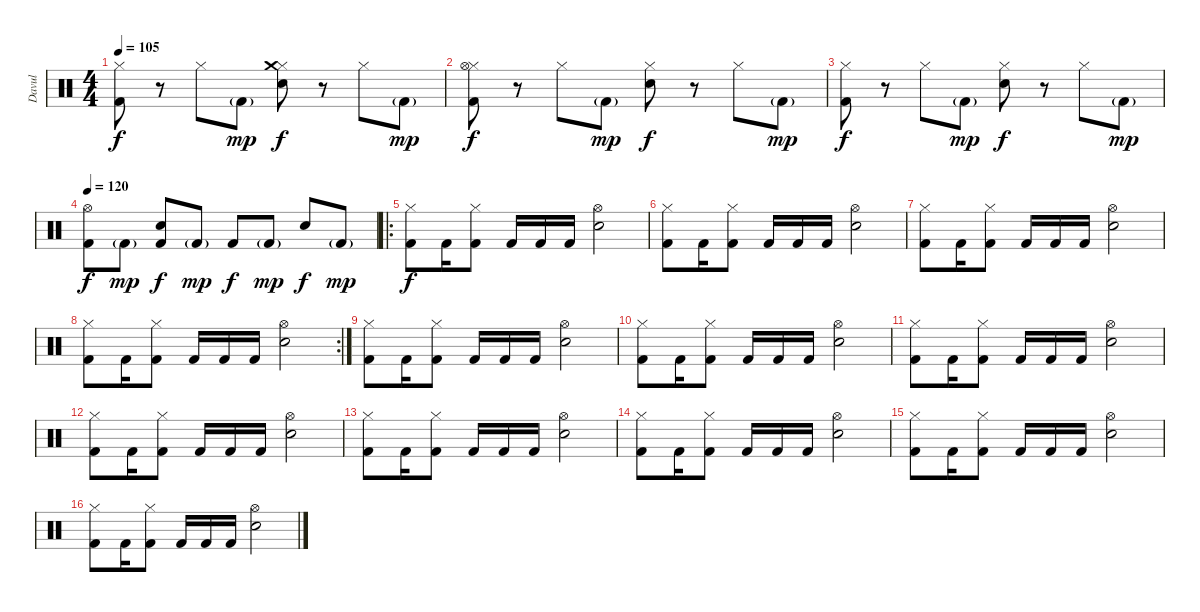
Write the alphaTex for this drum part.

\track ("Davul" "Davul") {instrument percussion}
\staff {score}
\articulation defaults
\ts (4 4)
\tempo 105
\clef neutral
\ks c
("Hi-Hat (closed)" "Kick (hit) 2").8{dy f} r.8 "Hi-Hat (closed)".8 "Kick (hit) 2"{g}.8{dy mp} ("Hi-Hat (closed)" "Crash medium (hit)" "Electric Snare (hit)").8{dy f} r.8 "Hi-Hat (closed)".8 "Kick (hit) 2"{g}.8{dy mp} |
("Hi-Hat (closed)" "Hi-Hat (open)" "Kick (hit) 2").8{dy f} r.8 "Hi-Hat (closed)".8 "Kick (hit) 2"{g}.8{dy mp} ("Hi-Hat (closed)" "Electric Snare (hit)").8{dy f} r.8 "Hi-Hat (closed)".8 "Kick (hit) 2"{g}.8{dy mp} |
("Hi-Hat (closed)" "Kick (hit) 2").8{dy f} r.8 "Hi-Hat (closed)".8 "Kick (hit) 2"{g}.8{dy mp} ("Hi-Hat (closed)" "Electric Snare (hit)").8{dy f} r.8 "Hi-Hat (closed)".8 "Kick (hit) 2"{g}.8{dy mp} |
\tempo 120
("Hi-Hat (open)" "Kick (hit) 2").8{dy f volume 16} "Kick (hit) 2"{g}.8{dy mp} ("Kick (hit) 2" "Electric Snare (hit)").8{dy f} "Kick (hit) 2"{g}.8{dy mp} "Kick (hit) 2".8{dy f} "Kick (hit) 2"{g}.8{dy mp} "Electric Snare (hit)".8{dy f} "Kick (hit) 2"{g}.8{dy mp} |
\ro
("Hi-Hat (closed)" "Kick (hit) 2").8{dy f volume 14} "Kick (hit) 2".16 ("Hi-Hat (closed)" "Kick (hit) 2").8 "Kick (hit) 2".16 "Kick (hit) 2".16 "Kick (hit) 2".16 ("Hi-Hat (open)" "Electric Snare (hit)").2 |
("Hi-Hat (closed)" "Kick (hit) 2").8 "Kick (hit) 2".16 ("Hi-Hat (closed)" "Kick (hit) 2").8 "Kick (hit) 2".16 "Kick (hit) 2".16 "Kick (hit) 2".16 ("Hi-Hat (open)" "Electric Snare (hit)").2 |
("Hi-Hat (closed)" "Kick (hit) 2").8 "Kick (hit) 2".16 ("Hi-Hat (closed)" "Kick (hit) 2").8 "Kick (hit) 2".16 "Kick (hit) 2".16 "Kick (hit) 2".16 ("Hi-Hat (open)" "Electric Snare (hit)").2 |
\rc 2
("Hi-Hat (closed)" "Kick (hit) 2").8 "Kick (hit) 2".16 ("Hi-Hat (closed)" "Kick (hit) 2").8 "Kick (hit) 2".16 "Kick (hit) 2".16 "Kick (hit) 2".16 ("Hi-Hat (open)" "Electric Snare (hit)").2 |
("Hi-Hat (closed)" "Kick (hit) 2").8 "Kick (hit) 2".16 ("Hi-Hat (closed)" "Kick (hit) 2").8 "Kick (hit) 2".16 "Kick (hit) 2".16 "Kick (hit) 2".16 ("Hi-Hat (open)" "Electric Snare (hit)").2 |
("Hi-Hat (closed)" "Kick (hit) 2").8 "Kick (hit) 2".16 ("Hi-Hat (closed)" "Kick (hit) 2").8 "Kick (hit) 2".16 "Kick (hit) 2".16 "Kick (hit) 2".16 ("Hi-Hat (open)" "Electric Snare (hit)").2 |
("Hi-Hat (closed)" "Kick (hit) 2").8 "Kick (hit) 2".16 ("Hi-Hat (closed)" "Kick (hit) 2").8 "Kick (hit) 2".16 "Kick (hit) 2".16 "Kick (hit) 2".16 ("Hi-Hat (open)" "Electric Snare (hit)").2 |
("Hi-Hat (closed)" "Kick (hit) 2").8 "Kick (hit) 2".16 ("Hi-Hat (closed)" "Kick (hit) 2").8 "Kick (hit) 2".16 "Kick (hit) 2".16 "Kick (hit) 2".16 ("Hi-Hat (open)" "Electric Snare (hit)").2 |
("Hi-Hat (closed)" "Kick (hit) 2").8 "Kick (hit) 2".16 ("Hi-Hat (closed)" "Kick (hit) 2").8 "Kick (hit) 2".16 "Kick (hit) 2".16 "Kick (hit) 2".16 ("Hi-Hat (open)" "Electric Snare (hit)").2 |
("Hi-Hat (closed)" "Kick (hit) 2").8 "Kick (hit) 2".16 ("Hi-Hat (closed)" "Kick (hit) 2").8 "Kick (hit) 2".16 "Kick (hit) 2".16 "Kick (hit) 2".16 ("Hi-Hat (open)" "Electric Snare (hit)").2 |
("Hi-Hat (closed)" "Kick (hit) 2").8 "Kick (hit) 2".16 ("Hi-Hat (closed)" "Kick (hit) 2").8 "Kick (hit) 2".16 "Kick (hit) 2".16 "Kick (hit) 2".16 ("Hi-Hat (open)" "Electric Snare (hit)").2 |
("Hi-Hat (closed)" "Kick (hit) 2").8 "Kick (hit) 2".16 ("Hi-Hat (closed)" "Kick (hit) 2").8 "Kick (hit) 2".16 "Kick (hit) 2".16 "Kick (hit) 2".16 ("Hi-Hat (open)" "Electric Snare (hit)").2
